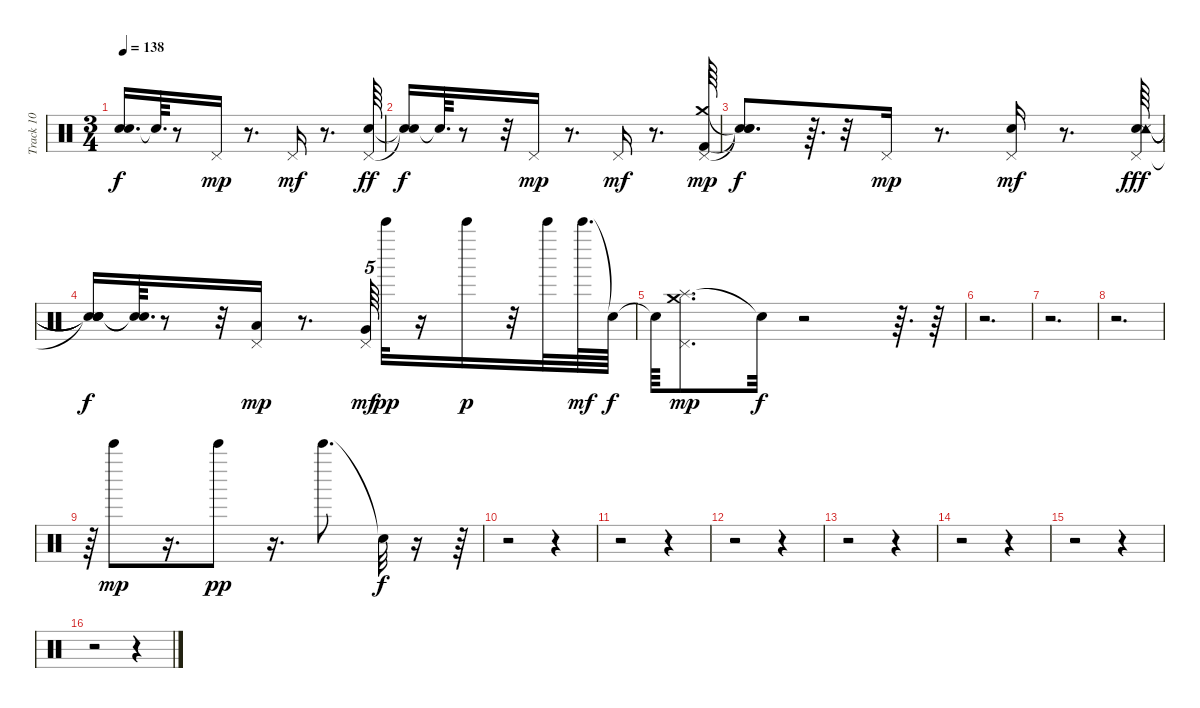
\track ("Track 10" "Track 10") {instrument percussion}
\staff {score}
\articulation defaults
\ts (3 4)
\tempo 138
\clef neutral
\ks c
("Snare (hit)"{t} "Snare (hit)"{t}).16{d dy f} "Snare (hit)"{t}.64{d} r.8 "Pedal Hi-Hat (hit)".16{dy mp} r.8{d} "Pedal Hi-Hat (hit)".16{dy mf} r.8{d} ("Pedal Hi-Hat (hit)" "Electric Snare (hit)").64{dy ff} |
("Snare (hit)"{t} "Snare (hit)"{t}).16{dy f} "Snare (hit)"{t}.64{d} r.8 r.32 "Pedal Hi-Hat (hit)".16{dy mp} r.8{d} "Pedal Hi-Hat (hit)".16{dy mf} r.8{d} ("Crash medium (hit)" "Pedal Hi-Hat (hit)" "Kick (hit) 2").64{dy mp} |
("Snare (hit)"{t} "Snare (hit)"{t} "Snare (hit)"{t}).8{d dy f} r.64{d} r.32 "Pedal Hi-Hat (hit)".16{dy mp} r.8{d} ("Electric Snare (hit)" "Pedal Hi-Hat (hit)").16{dy mf} r.8{d} ("Electric Snare (hit)" "Pedal Hi-Hat (hit)" "Snare (side stick) 3" "Tambourine (hit)").64{dy fff} |
("Snare (hit)"{t} "Snare (hit)"{t} "Snare (hit)"{t} "Snare (hit)"{t}).16{dy f} ("Snare (hit)"{t} "Snare (hit)"{t}).64{d} r.8 r.32 ("Low Tom (hit)" "Pedal Hi-Hat (hit)").16{dy mp} r.8{d} ("Very Low Tom (hit)" "Pedal Hi-Hat (hit)").64{tu (5 4) dy mf} "Bell Tree (hit)".32{dy pp} r.16 "Bell Tree (hit)".16{dy p} r.32 "Bell Tree (hit)".32 "Bell Tree (hit)".64{d dy mf} "Snare (hit)"{t}.64{dy f} |
"Snare (hit)"{t}.64 ("Splash (hit)" "Pedal Hi-Hat (hit)" "Crash medium (hit)").8{d dy mp} "Snare (hit)"{t}.32{dy f} r.2 r.64{d} r.64 |
r.2{d} |
r.2{d} |
r.2{d} |
r.64 "Bell Tree (hit)".8{dy mp} r.16{d} "Bell Tree (hit)".8{dy pp} r.16{d} "Bell Tree (hit)".8{d} "Snare (hit)"{t}.32{dy f} r.16 r.64 |
r.2 r.4 |
r.2 r.4 |
r.2 r.4 |
r.2 r.4 |
r.2 r.4 |
r.2 r.4 |
r.2 r.4
